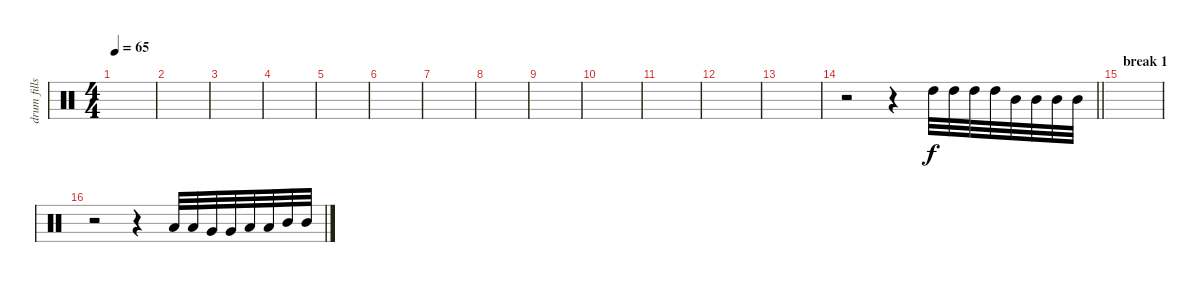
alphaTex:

\track ("drum fills" "drum fills") {instrument percussion}
\staff {score}
\articulation defaults
\ts (4 4)
\tempo 65
\clef neutral
\ks c
|
|
|
|
|
|
|
|
|
|
|
|
|
\barLineRight lightlight
r.2 r.4 "High Tom (hit)".32 "High Tom (hit)".32 "High Tom (hit)".32 "High Tom (hit)".32 "Mid Tom (hit)".32 "Mid Tom (hit)".32 "Mid Tom (hit)".32 "Mid Tom (hit)".32 |
\section ("" "break 1")
|
r.2 r.4 "Low Floor Tom (hit)".32 "Low Floor Tom (hit)".32 "Very Low Tom (hit)".32 "Very Low Tom (hit)".32 "Low Tom (hit)".32 "Low Tom (hit)".32 "Mid Tom (hit)".32 "Mid Tom (hit)".32
